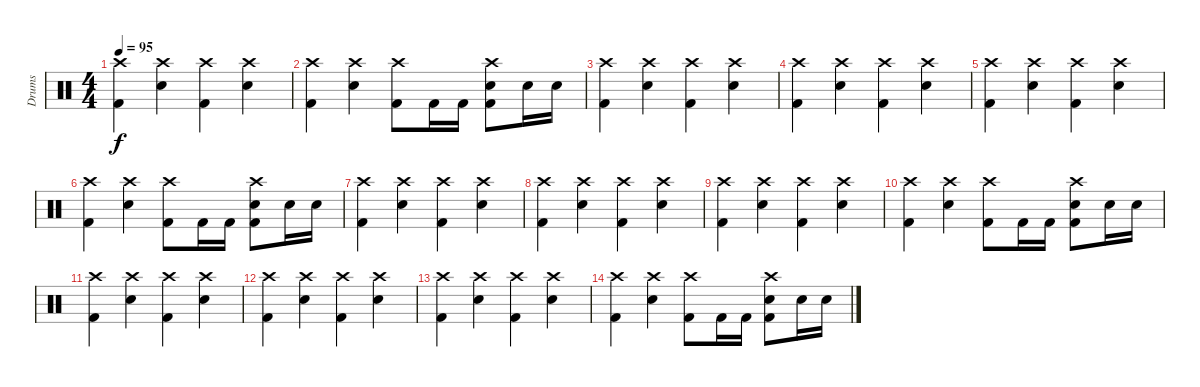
\track ("Drums" "Drums") {instrument percussion}
\staff {score}
\articulation defaults
\ts (4 4)
\tempo 95
\clef neutral
\ks c
("Crash high (hit)" "Kick (hit) 2").4{dy f} ("Crash high (hit)" "Electric Snare (hit)").4 ("Crash high (hit)" "Kick (hit) 2").4 ("Crash high (hit)" "Electric Snare (hit)").4 |
("Crash high (hit)" "Kick (hit) 2").4 ("Crash high (hit)" "Electric Snare (hit)").4 ("Crash high (hit)" "Kick (hit) 2").8 "Kick (hit) 2".16 "Kick (hit) 2".16 ("Crash high (hit)" "Electric Snare (hit)" "Kick (hit) 2").8 "Electric Snare (hit)".16 "Electric Snare (hit)".16 |
("Crash high (hit)" "Kick (hit) 2").4 ("Crash high (hit)" "Electric Snare (hit)").4 ("Crash high (hit)" "Kick (hit) 2").4 ("Crash high (hit)" "Electric Snare (hit)").4 |
("Crash high (hit)" "Kick (hit) 2").4 ("Crash high (hit)" "Electric Snare (hit)").4 ("Crash high (hit)" "Kick (hit) 2").4 ("Crash high (hit)" "Electric Snare (hit)").4 |
("Crash high (hit)" "Kick (hit) 2").4 ("Crash high (hit)" "Electric Snare (hit)").4 ("Crash high (hit)" "Kick (hit) 2").4 ("Crash high (hit)" "Electric Snare (hit)").4 |
("Crash high (hit)" "Kick (hit) 2").4 ("Crash high (hit)" "Electric Snare (hit)").4 ("Crash high (hit)" "Kick (hit) 2").8 "Kick (hit) 2".16 "Kick (hit) 2".16 ("Crash high (hit)" "Electric Snare (hit)" "Kick (hit) 2").8 "Electric Snare (hit)".16 "Electric Snare (hit)".16 |
("Crash high (hit)" "Kick (hit) 2").4 ("Crash high (hit)" "Electric Snare (hit)").4 ("Crash high (hit)" "Kick (hit) 2").4 ("Crash high (hit)" "Electric Snare (hit)").4 |
("Crash high (hit)" "Kick (hit) 2").4 ("Crash high (hit)" "Electric Snare (hit)").4 ("Crash high (hit)" "Kick (hit) 2").4 ("Crash high (hit)" "Electric Snare (hit)").4 |
("Crash high (hit)" "Kick (hit) 2").4 ("Crash high (hit)" "Electric Snare (hit)").4 ("Crash high (hit)" "Kick (hit) 2").4 ("Crash high (hit)" "Electric Snare (hit)").4 |
("Crash high (hit)" "Kick (hit) 2").4 ("Crash high (hit)" "Electric Snare (hit)").4 ("Crash high (hit)" "Kick (hit) 2").8 "Kick (hit) 2".16 "Kick (hit) 2".16 ("Crash high (hit)" "Electric Snare (hit)" "Kick (hit) 2").8 "Electric Snare (hit)".16 "Electric Snare (hit)".16 |
("Crash high (hit)" "Kick (hit) 2").4{volume 2} ("Crash high (hit)" "Electric Snare (hit)").4 ("Crash high (hit)" "Kick (hit) 2").4 ("Crash high (hit)" "Electric Snare (hit)").4 |
("Crash high (hit)" "Kick (hit) 2").4 ("Crash high (hit)" "Electric Snare (hit)").4 ("Crash high (hit)" "Kick (hit) 2").4 ("Crash high (hit)" "Electric Snare (hit)").4 |
("Crash high (hit)" "Kick (hit) 2").4 ("Crash high (hit)" "Electric Snare (hit)").4 ("Crash high (hit)" "Kick (hit) 2").4 ("Crash high (hit)" "Electric Snare (hit)").4 |
("Crash high (hit)" "Kick (hit) 2").4 ("Crash high (hit)" "Electric Snare (hit)").4 ("Crash high (hit)" "Kick (hit) 2").8 "Kick (hit) 2".16 "Kick (hit) 2".16 ("Crash high (hit)" "Electric Snare (hit)" "Kick (hit) 2").8 "Electric Snare (hit)".16 "Electric Snare (hit)".16
